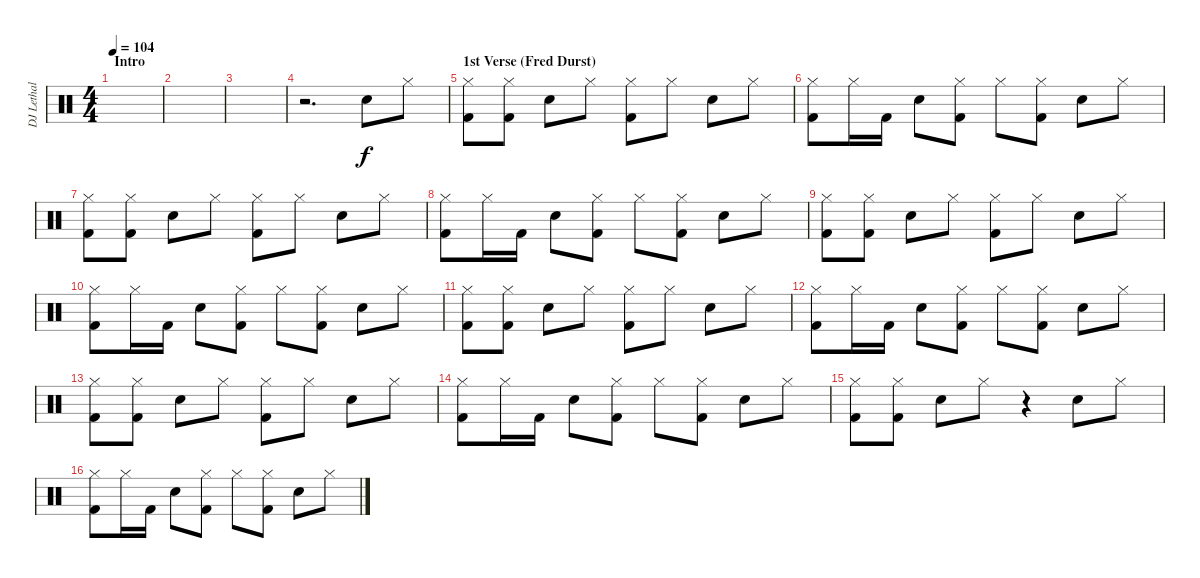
\track ("DJ Lethal - Sample Drums" "DJ Lethal ") {instrument percussion}
\staff {score}
\articulation defaults
\ts (4 4)
\section ("" "Intro")
\tempo 104
\clef neutral
\ks c
|
|
|
r.2{d} "Electric Snare (hit)".8 "Hi-Hat (closed)".8 |
\section ("" "1st Verse (Fred Durst)")
("Hi-Hat (closed)" "Kick (hit) 2").8 ("Hi-Hat (closed)" "Kick (hit) 2").8 "Electric Snare (hit)".8 "Hi-Hat (closed)".8 ("Hi-Hat (closed)" "Kick (hit) 2").8 "Hi-Hat (closed)".8 "Electric Snare (hit)".8 "Hi-Hat (closed)".8 |
("Hi-Hat (closed)" "Kick (hit) 2").8 "Hi-Hat (closed)".16 "Kick (hit) 2".16 "Electric Snare (hit)".8 ("Hi-Hat (closed)" "Kick (hit) 2").8 "Hi-Hat (closed)".8 ("Hi-Hat (closed)" "Kick (hit) 2").8 "Electric Snare (hit)".8 "Hi-Hat (closed)".8 |
("Hi-Hat (closed)" "Kick (hit) 2").8 ("Hi-Hat (closed)" "Kick (hit) 2").8 "Electric Snare (hit)".8 "Hi-Hat (closed)".8 ("Hi-Hat (closed)" "Kick (hit) 2").8 "Hi-Hat (closed)".8 "Electric Snare (hit)".8 "Hi-Hat (closed)".8 |
("Hi-Hat (closed)" "Kick (hit) 2").8 "Hi-Hat (closed)".16 "Kick (hit) 2".16 "Electric Snare (hit)".8 ("Hi-Hat (closed)" "Kick (hit) 2").8 "Hi-Hat (closed)".8 ("Hi-Hat (closed)" "Kick (hit) 2").8 "Electric Snare (hit)".8 "Hi-Hat (closed)".8 |
("Hi-Hat (closed)" "Kick (hit) 2").8 ("Hi-Hat (closed)" "Kick (hit) 2").8 "Electric Snare (hit)".8 "Hi-Hat (closed)".8 ("Hi-Hat (closed)" "Kick (hit) 2").8 "Hi-Hat (closed)".8 "Electric Snare (hit)".8 "Hi-Hat (closed)".8 |
("Hi-Hat (closed)" "Kick (hit) 2").8 "Hi-Hat (closed)".16 "Kick (hit) 2".16 "Electric Snare (hit)".8 ("Hi-Hat (closed)" "Kick (hit) 2").8 "Hi-Hat (closed)".8 ("Hi-Hat (closed)" "Kick (hit) 2").8 "Electric Snare (hit)".8 "Hi-Hat (closed)".8 |
("Hi-Hat (closed)" "Kick (hit) 2").8 ("Hi-Hat (closed)" "Kick (hit) 2").8 "Electric Snare (hit)".8 "Hi-Hat (closed)".8 ("Hi-Hat (closed)" "Kick (hit) 2").8 "Hi-Hat (closed)".8 "Electric Snare (hit)".8 "Hi-Hat (closed)".8 |
("Hi-Hat (closed)" "Kick (hit) 2").8 "Hi-Hat (closed)".16 "Kick (hit) 2".16 "Electric Snare (hit)".8 ("Hi-Hat (closed)" "Kick (hit) 2").8 "Hi-Hat (closed)".8 ("Hi-Hat (closed)" "Kick (hit) 2").8 "Electric Snare (hit)".8 "Hi-Hat (closed)".8 |
("Hi-Hat (closed)" "Kick (hit) 2").8 ("Hi-Hat (closed)" "Kick (hit) 2").8 "Electric Snare (hit)".8 "Hi-Hat (closed)".8 ("Hi-Hat (closed)" "Kick (hit) 2").8 "Hi-Hat (closed)".8 "Electric Snare (hit)".8 "Hi-Hat (closed)".8 |
("Hi-Hat (closed)" "Kick (hit) 2").8 "Hi-Hat (closed)".16 "Kick (hit) 2".16 "Electric Snare (hit)".8 ("Hi-Hat (closed)" "Kick (hit) 2").8 "Hi-Hat (closed)".8 ("Hi-Hat (closed)" "Kick (hit) 2").8 "Electric Snare (hit)".8 "Hi-Hat (closed)".8 |
("Hi-Hat (closed)" "Kick (hit) 2").8 ("Hi-Hat (closed)" "Kick (hit) 2").8 "Electric Snare (hit)".8 "Hi-Hat (closed)".8 r.4 "Electric Snare (hit)".8 "Hi-Hat (closed)".8 |
("Hi-Hat (closed)" "Kick (hit) 2").8 "Hi-Hat (closed)".16 "Kick (hit) 2".16 "Electric Snare (hit)".8 ("Hi-Hat (closed)" "Kick (hit) 2").8 "Hi-Hat (closed)".8 ("Hi-Hat (closed)" "Kick (hit) 2").8 "Electric Snare (hit)".8 "Hi-Hat (closed)".8
